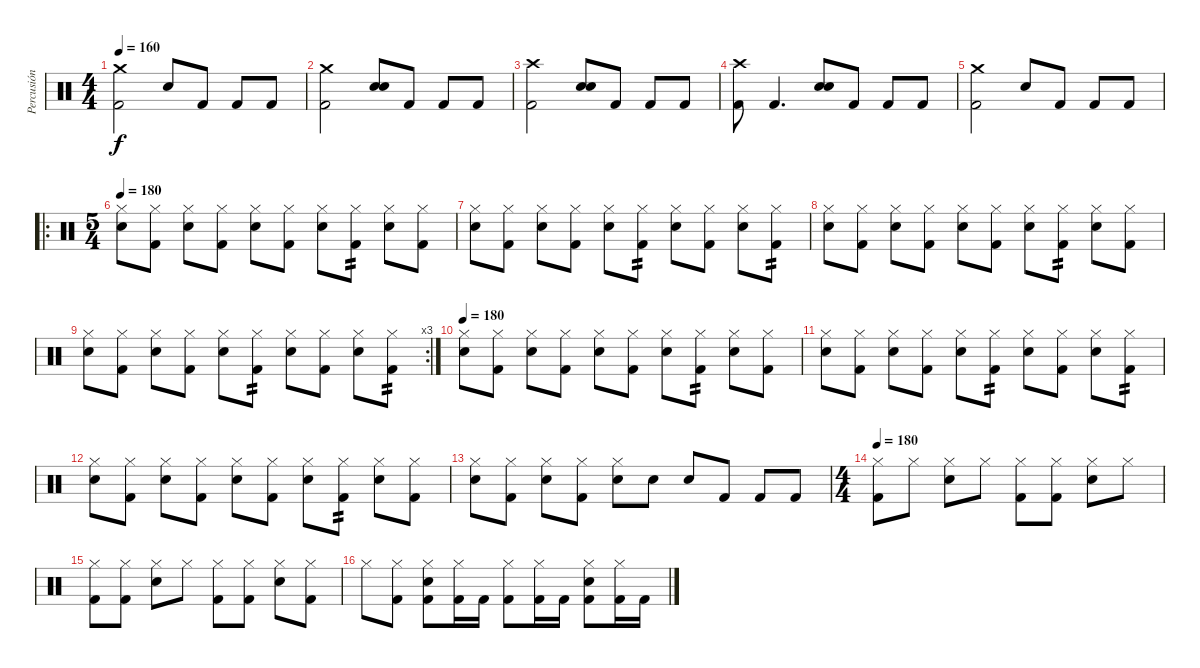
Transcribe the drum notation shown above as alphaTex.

\track ("Percusión" "Percusión") {instrument percussion}
\staff {score}
\articulation defaults
\ts (4 4)
\tempo 160
\clef neutral
\ks c
("Crash medium (hit)" "Kick (hit) 2").2{dy f} "Electric Snare (hit)".8 "Kick (hit) 2".8 "Kick (hit) 2".8 "Kick (hit) 2".8 |
("Crash medium (hit)" "Kick (hit) 2").2 ("Electric Snare (hit)" "Electric Snare (hit)").8 "Kick (hit) 2".8 "Kick (hit) 2".8 "Kick (hit) 2".8 |
("Crash high (hit)" "Kick (hit) 2").2 ("Electric Snare (hit)" "Electric Snare (hit)").8 "Kick (hit) 2".8 "Kick (hit) 2".8 "Kick (hit) 2".8 |
("Crash high (hit)" "Kick (hit) 2").8 "Kick (hit) 2".4{d} ("Electric Snare (hit)" "Electric Snare (hit)").8 "Kick (hit) 2".8 "Kick (hit) 2".8 "Kick (hit) 2".8 |
("Crash medium (hit)" "Kick (hit) 2").2 "Electric Snare (hit)".8 "Kick (hit) 2".8 "Kick (hit) 2".8 "Kick (hit) 2".8 |
\ro
\ts (5 4)
\tempo 180
("Hi-Hat (closed)" "Electric Snare (hit)").8 ("Hi-Hat (closed)" "Kick (hit) 2").8 ("Hi-Hat (closed)" "Electric Snare (hit)").8 ("Hi-Hat (closed)" "Kick (hit) 2").8 ("Hi-Hat (closed)" "Electric Snare (hit)").8 ("Hi-Hat (closed)" "Kick (hit) 2").8 ("Hi-Hat (closed)" "Electric Snare (hit)").8 ("Hi-Hat (closed)" "Kick (hit) 2").8{tp 2} ("Hi-Hat (closed)" "Electric Snare (hit)").8 ("Hi-Hat (closed)" "Kick (hit) 2").8 |
("Hi-Hat (closed)" "Electric Snare (hit)").8 ("Hi-Hat (closed)" "Kick (hit) 2").8 ("Hi-Hat (closed)" "Electric Snare (hit)").8 ("Hi-Hat (closed)" "Kick (hit) 2").8 ("Hi-Hat (closed)" "Electric Snare (hit)").8 ("Hi-Hat (closed)" "Kick (hit) 2").8{tp 2} ("Hi-Hat (closed)" "Electric Snare (hit)").8 ("Hi-Hat (closed)" "Kick (hit) 2").8 ("Hi-Hat (closed)" "Electric Snare (hit)").8 ("Hi-Hat (closed)" "Kick (hit) 2").8{tp 2} |
("Hi-Hat (closed)" "Electric Snare (hit)").8 ("Hi-Hat (closed)" "Kick (hit) 2").8 ("Hi-Hat (closed)" "Electric Snare (hit)").8 ("Hi-Hat (closed)" "Kick (hit) 2").8 ("Hi-Hat (closed)" "Electric Snare (hit)").8 ("Hi-Hat (closed)" "Kick (hit) 2").8 ("Hi-Hat (closed)" "Electric Snare (hit)").8 ("Hi-Hat (closed)" "Kick (hit) 2").8{tp 2} ("Hi-Hat (closed)" "Electric Snare (hit)").8 ("Hi-Hat (closed)" "Kick (hit) 2").8 |
\rc 3
("Hi-Hat (closed)" "Electric Snare (hit)").8 ("Hi-Hat (closed)" "Kick (hit) 2").8 ("Hi-Hat (closed)" "Electric Snare (hit)").8 ("Hi-Hat (closed)" "Kick (hit) 2").8 ("Hi-Hat (closed)" "Electric Snare (hit)").8 ("Hi-Hat (closed)" "Kick (hit) 2").8{tp 2} ("Hi-Hat (closed)" "Electric Snare (hit)").8 ("Hi-Hat (closed)" "Kick (hit) 2").8 ("Hi-Hat (closed)" "Electric Snare (hit)").8 ("Hi-Hat (closed)" "Kick (hit) 2").8{tp 2} |
\tempo 180
("Hi-Hat (closed)" "Electric Snare (hit)").8 ("Hi-Hat (closed)" "Kick (hit) 2").8 ("Hi-Hat (closed)" "Electric Snare (hit)").8 ("Hi-Hat (closed)" "Kick (hit) 2").8 ("Hi-Hat (closed)" "Electric Snare (hit)").8 ("Hi-Hat (closed)" "Kick (hit) 2").8 ("Hi-Hat (closed)" "Electric Snare (hit)").8 ("Hi-Hat (closed)" "Kick (hit) 2").8{tp 2} ("Hi-Hat (closed)" "Electric Snare (hit)").8 ("Hi-Hat (closed)" "Kick (hit) 2").8 |
("Hi-Hat (closed)" "Electric Snare (hit)").8 ("Hi-Hat (closed)" "Kick (hit) 2").8 ("Hi-Hat (closed)" "Electric Snare (hit)").8 ("Hi-Hat (closed)" "Kick (hit) 2").8 ("Hi-Hat (closed)" "Electric Snare (hit)").8 ("Hi-Hat (closed)" "Kick (hit) 2").8{tp 2} ("Hi-Hat (closed)" "Electric Snare (hit)").8 ("Hi-Hat (closed)" "Kick (hit) 2").8 ("Hi-Hat (closed)" "Electric Snare (hit)").8 ("Hi-Hat (closed)" "Kick (hit) 2").8{tp 2} |
("Hi-Hat (closed)" "Electric Snare (hit)").8 ("Hi-Hat (closed)" "Kick (hit) 2").8 ("Hi-Hat (closed)" "Electric Snare (hit)").8 ("Hi-Hat (closed)" "Kick (hit) 2").8 ("Hi-Hat (closed)" "Electric Snare (hit)").8 ("Hi-Hat (closed)" "Kick (hit) 2").8 ("Hi-Hat (closed)" "Electric Snare (hit)").8 ("Hi-Hat (closed)" "Kick (hit) 2").8{tp 2} ("Hi-Hat (closed)" "Electric Snare (hit)").8 ("Hi-Hat (closed)" "Kick (hit) 2").8 |
("Hi-Hat (closed)" "Electric Snare (hit)").8 ("Hi-Hat (closed)" "Kick (hit) 2").8 ("Hi-Hat (closed)" "Electric Snare (hit)").8 ("Hi-Hat (closed)" "Kick (hit) 2").8 ("Hi-Hat (closed)" "Electric Snare (hit)").8 "Electric Snare (hit)".8 "Electric Snare (hit)".8 "Kick (hit) 2".8 "Kick (hit) 2".8 "Kick (hit) 2".8 |
\ts (4 4)
\tempo 180
("Hi-Hat (closed)" "Kick (hit) 2").8 "Hi-Hat (closed)".8 ("Hi-Hat (closed)" "Electric Snare (hit)").8 "Hi-Hat (closed)".8 ("Hi-Hat (closed)" "Kick (hit) 2").8 ("Hi-Hat (closed)" "Kick (hit) 2").8 ("Hi-Hat (closed)" "Electric Snare (hit)").8 "Hi-Hat (closed)".8 |
("Hi-Hat (closed)" "Kick (hit) 2").8 ("Hi-Hat (closed)" "Kick (hit) 2").8 ("Hi-Hat (closed)" "Electric Snare (hit)").8 "Hi-Hat (closed)".8 ("Hi-Hat (closed)" "Kick (hit) 2").8 ("Hi-Hat (closed)" "Kick (hit) 2").8 ("Hi-Hat (closed)" "Electric Snare (hit)").8 ("Hi-Hat (closed)" "Kick (hit) 2").8 |
"Hi-Hat (closed)".8 ("Hi-Hat (closed)" "Kick (hit) 2").8 ("Hi-Hat (closed)" "Electric Snare (hit)" "Kick (hit) 2").8 ("Hi-Hat (closed)" "Kick (hit) 2").16 "Kick (hit) 2".16 ("Hi-Hat (closed)" "Kick (hit) 2").8 ("Hi-Hat (closed)" "Kick (hit) 2").16 "Kick (hit) 2".16 ("Hi-Hat (closed)" "Electric Snare (hit)" "Kick (hit) 2").8 ("Hi-Hat (closed)" "Kick (hit) 2").16 "Kick (hit) 2".16
